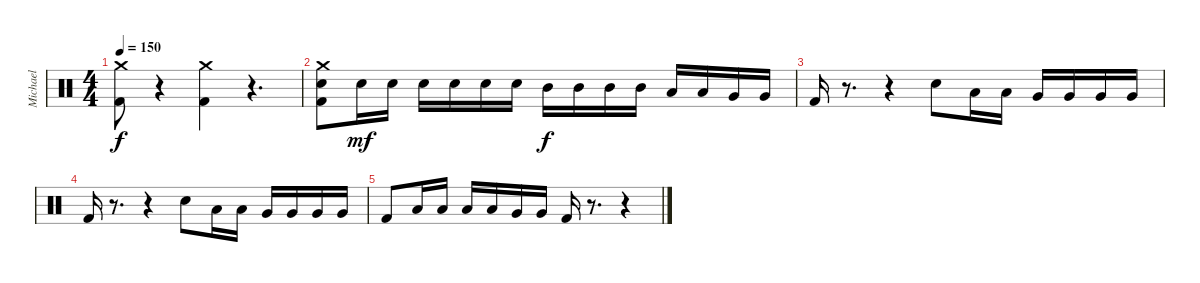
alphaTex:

\track ("Michael" "Michael") {instrument percussion}
\staff {score}
\articulation defaults
\ts (4 4)
\tempo 150
\clef neutral
\ks c
("Crash medium (hit)" "Kick (hit) 2").8{dy f} r.4 ("Crash medium (hit)" "Kick (hit) 2").4 r.4{d} |
("Crash medium (hit)" "Electric Snare (hit)" "Kick (hit) 2").8 "Electric Snare (hit)".16{dy mf} "Electric Snare (hit)".16 "Electric Snare (hit)".16 "Electric Snare (hit)".16 "Electric Snare (hit)".16 "Electric Snare (hit)".16 "Mid Tom (hit)".16{dy f} "Mid Tom (hit)".16 "Mid Tom (hit)".16 "Mid Tom (hit)".16 "Low Tom (hit)".16 "Low Tom (hit)".16 "Very Low Tom (hit)".16 "Very Low Tom (hit)".16 |
"Kick (hit) 2".16 r.8{d} r.4 "Electric Snare (hit)".8 "Low Tom (hit)".16 "Low Tom (hit)".16 "Very Low Tom (hit)".16 "Very Low Tom (hit)".16 "Very Low Tom (hit)".16 "Very Low Tom (hit)".16 |
"Kick (hit) 2".16 r.8{d} r.4 "Electric Snare (hit)".8 "Low Tom (hit)".16 "Low Tom (hit)".16 "Very Low Tom (hit)".16 "Very Low Tom (hit)".16 "Very Low Tom (hit)".16 "Very Low Tom (hit)".16 |
"Kick (hit) 2".8 "Low Tom (hit)".16 "Low Tom (hit)".16 "Low Tom (hit)".16 "Low Tom (hit)".16 "Very Low Tom (hit)".16 "Very Low Tom (hit)".16 "Kick (hit) 2".16 r.8{d} r.4
